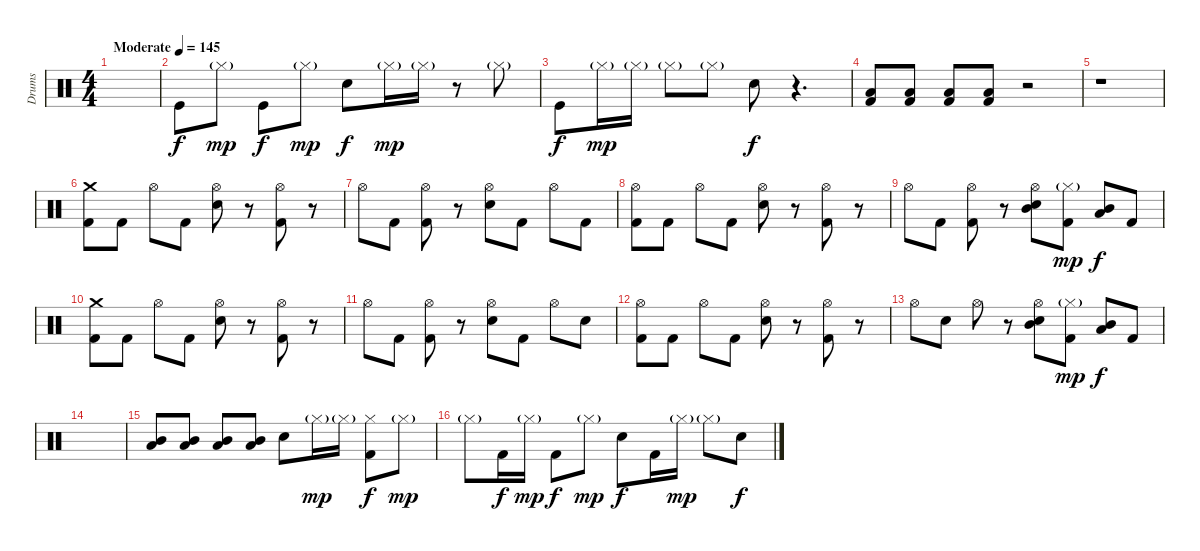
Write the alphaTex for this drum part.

\track ("Drums" "Drums") {instrument percussion}
\staff {score}
\articulation defaults
\ts (4 4)
\tempo (145 "Moderate")
\clef neutral
\ks c
|
"Kick (hit)".8 "Hi-Hat (closed)"{g}.8{dy mp} "Kick (hit)".8{dy f} "Hi-Hat (closed)"{g}.8{dy mp} "Electric Snare (hit)".8{dy f} "Hi-Hat (closed)"{g}.16{dy mp} "Hi-Hat (closed)"{g}.16 r.8 "Hi-Hat (closed)"{g}.8 |
"Kick (hit)".8{dy f} "Hi-Hat (closed)"{g}.16{dy mp} "Hi-Hat (closed)"{g}.16 "Hi-Hat (closed)"{g}.8 "Hi-Hat (closed)"{g}.8 "Electric Snare (hit)".8{dy f} r.4{d} |
("Low Tom (hit)" "Kick (hit) 2").8 ("Low Tom (hit)" "Kick (hit) 2").8 ("Low Tom (hit)" "Kick (hit) 2").8 ("Low Tom (hit)" "Kick (hit) 2").8 r.2 |
r.1 |
("Crash medium (hit)" "Kick (hit) 2").8 "Kick (hit) 2".8 "Hi-Hat (open)".8 "Kick (hit) 2".8 ("Hi-Hat (open)" "Electric Snare (hit)").8 r.8 ("Hi-Hat (open)" "Kick (hit) 2").8 r.8 |
"Hi-Hat (open)".8 "Kick (hit) 2".8 ("Hi-Hat (open)" "Kick (hit) 2").8 r.8 ("Hi-Hat (open)" "Electric Snare (hit)").8 "Kick (hit) 2".8 "Hi-Hat (open)".8 "Kick (hit) 2".8 |
("Hi-Hat (open)" "Kick (hit) 2").8 "Kick (hit) 2".8 "Hi-Hat (open)".8 "Kick (hit) 2".8 ("Hi-Hat (open)" "Electric Snare (hit)").8 r.8 ("Hi-Hat (open)" "Kick (hit) 2").8 r.8 |
"Hi-Hat (open)".8 "Kick (hit) 2".8 ("Hi-Hat (open)" "Kick (hit) 2").8 r.8 ("Hi-Hat (open)" "Electric Snare (hit)" "Mid Tom (hit)").8 ("Hi-Hat (closed)"{g} "Kick (hit) 2").8{dy mp} ("Mid Tom (hit)" "Low Tom (hit)").8{dy f} "Kick (hit) 2".8 |
("Crash medium (hit)" "Kick (hit) 2").8 "Kick (hit) 2".8 "Hi-Hat (open)".8 "Kick (hit) 2".8 ("Hi-Hat (open)" "Electric Snare (hit)").8 r.8 ("Hi-Hat (open)" "Kick (hit) 2").8 r.8 |
"Hi-Hat (open)".8 "Kick (hit) 2".8 ("Hi-Hat (open)" "Kick (hit) 2").8 r.8 ("Hi-Hat (open)" "Electric Snare (hit)").8 "Kick (hit) 2".8 "Hi-Hat (open)".8 "Electric Snare (hit)".8 |
("Hi-Hat (open)" "Kick (hit) 2").8 "Kick (hit) 2".8 "Hi-Hat (open)".8 "Kick (hit) 2".8 ("Hi-Hat (open)" "Electric Snare (hit)").8 r.8 ("Hi-Hat (open)" "Kick (hit) 2").8 r.8 |
"Hi-Hat (open)".8 "Electric Snare (hit)".8 "Hi-Hat (open)".8 r.8 ("Hi-Hat (open)" "Electric Snare (hit)" "Mid Tom (hit)").8 ("Hi-Hat (closed)"{g} "Kick (hit) 2").8{dy mp} ("Mid Tom (hit)" "Low Tom (hit)").8{dy f} "Kick (hit) 2".8 |
|
("Mid Tom (hit)" "Low Tom (hit)").8 ("Mid Tom (hit)" "Low Tom (hit)").8 ("Mid Tom (hit)" "Low Tom (hit)").8 ("Mid Tom (hit)" "Low Tom (hit)").8 "Electric Snare (hit)".8 "Hi-Hat (closed)"{g}.16{dy mp} "Hi-Hat (closed)"{g}.16 ("Hi-Hat (closed)" "Kick (hit) 2").8{dy f} "Hi-Hat (closed)"{g}.8{dy mp} |
"Hi-Hat (closed)"{g}.8 "Kick (hit) 2".16{dy f} "Hi-Hat (closed)"{g}.16{dy mp} "Kick (hit) 2".8{dy f} "Hi-Hat (closed)"{g}.8{dy mp} "Electric Snare (hit)".8{dy f} "Kick (hit) 2".16 "Hi-Hat (closed)"{g}.16{dy mp} "Hi-Hat (closed)"{g}.8 "Electric Snare (hit)".8{dy f}
